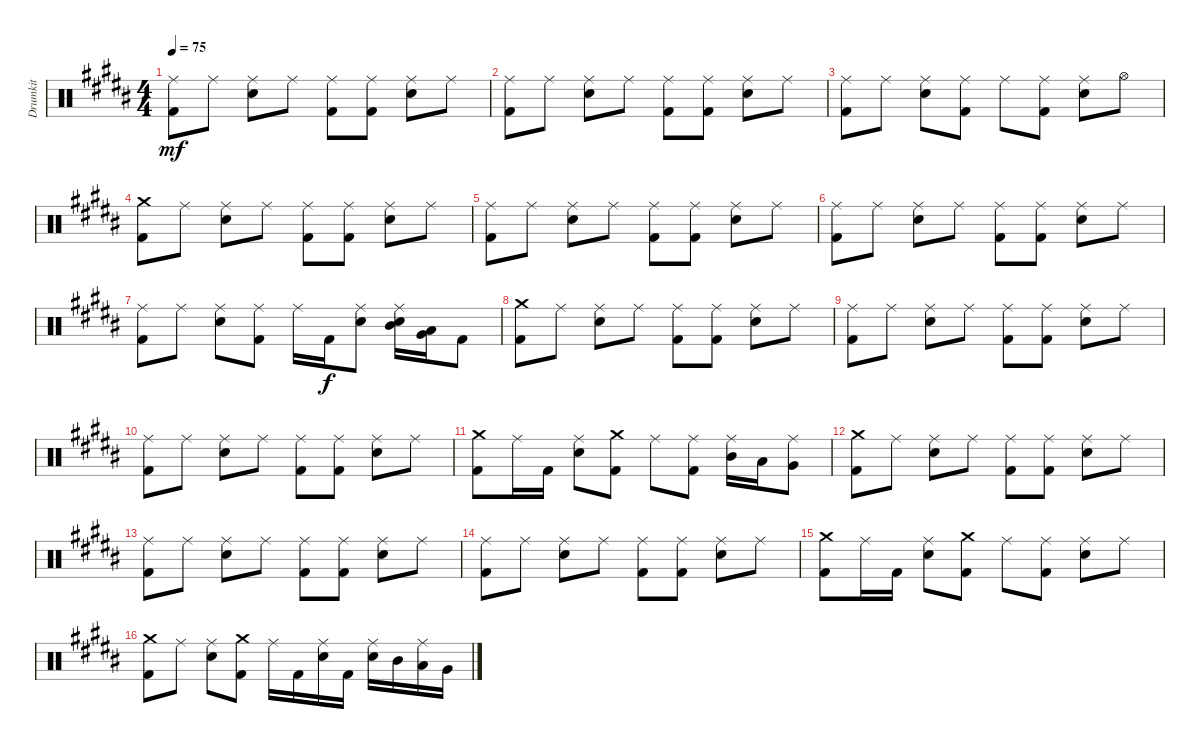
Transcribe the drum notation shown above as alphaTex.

\track ("Drumkit" "Drumkit") {instrument percussion}
\staff {score}
\articulation defaults
\ts (4 4)
\tempo 75
\clef neutral
\ks b
("Kick (hit) 2" "Ride (middle)").8{dy mf} "Ride (middle)".8 ("Ride (middle)" "Snare (hit) 2").8 "Ride (middle)".8 ("Ride (middle)" "Kick (hit) 2").8 ("Ride (middle)" "Kick (hit) 2").8 ("Ride (middle)" "Snare (hit) 2").8 "Ride (middle)".8 |
("Kick (hit) 2" "Ride (middle)").8 "Ride (middle)".8 ("Ride (middle)" "Snare (hit) 2").8 "Ride (middle)".8 ("Ride (middle)" "Kick (hit) 2").8 ("Ride (middle)" "Kick (hit) 2").8 ("Ride (middle)" "Snare (hit) 2").8 "Ride (middle)".8 |
("Kick (hit) 2" "Ride (middle)").8 "Ride (middle)".8 ("Ride (middle)" "Snare (hit) 2").8 ("Ride (middle)" "Kick (hit) 2").8 "Ride (middle)".8 ("Ride (middle)" "Kick (hit) 2").8 ("Ride (middle)" "Snare (hit) 2").8 "Hi-Hat (open)".8 |
("Kick (hit) 2" "Crash medium (hit)").8 "Ride (middle)".8 ("Ride (middle)" "Snare (hit) 2").8 "Ride (middle)".8 ("Ride (middle)" "Kick (hit) 2").8 ("Ride (middle)" "Kick (hit) 2").8 ("Ride (middle)" "Snare (hit) 2").8 "Ride (middle)".8 |
("Kick (hit) 2" "Ride (middle)").8 "Ride (middle)".8 ("Ride (middle)" "Snare (hit) 2").8 "Ride (middle)".8 ("Ride (middle)" "Kick (hit) 2").8 ("Ride (middle)" "Kick (hit) 2").8 ("Ride (middle)" "Snare (hit) 2").8 "Ride (middle)".8 |
("Kick (hit) 2" "Ride (middle)").8 "Ride (middle)".8 ("Ride (middle)" "Snare (hit) 2").8 "Ride (middle)".8 ("Ride (middle)" "Kick (hit) 2").8 ("Ride (middle)" "Kick (hit) 2").8 ("Ride (middle)" "Snare (hit) 2").8 "Ride (middle)".8 |
("Kick (hit) 2" "Ride (middle)").8 "Ride (middle)".8 ("Ride (middle)" "Snare (hit) 2").8 ("Ride (middle)" "Kick (hit) 2").8 "Ride (middle)".16 "Kick (hit) 2".16{dy f} ("Ride (middle)" "Snare (hit) 2").8 ("Ride (middle)" "Snare (hit) 2" "Mid Tom (hit)").16 ("Low Tom (hit)" "Very Low Tom (hit)").16 "Kick (hit) 2".8 |
("Kick (hit) 2" "Crash medium (hit)").8 "Ride (middle)".8 ("Ride (middle)" "Snare (hit) 2").8 "Ride (middle)".8 ("Ride (middle)" "Kick (hit) 2").8 ("Ride (middle)" "Kick (hit) 2").8 ("Ride (middle)" "Snare (hit) 2").8 "Ride (middle)".8 |
("Kick (hit) 2" "Ride (middle)").8 "Ride (middle)".8 ("Ride (middle)" "Snare (hit) 2").8 "Ride (middle)".8 ("Ride (middle)" "Kick (hit) 2").8 ("Ride (middle)" "Kick (hit) 2").8 ("Ride (middle)" "Snare (hit) 2").8 "Ride (middle)".8 |
("Kick (hit) 2" "Ride (middle)").8 "Ride (middle)".8 ("Ride (middle)" "Snare (hit) 2").8 "Ride (middle)".8 ("Ride (middle)" "Kick (hit) 2").8 ("Ride (middle)" "Kick (hit) 2").8 ("Ride (middle)" "Snare (hit) 2").8 "Ride (middle)".8 |
("Kick (hit) 2" "Crash medium (hit)").8 "Ride (middle)".16 "Kick (hit) 2".16 ("Ride (middle)" "Snare (hit) 2").8 ("Kick (hit) 2" "Crash medium (hit)").8 "Ride (middle)".8 ("Ride (middle)" "Kick (hit) 2").8 ("Mid Tom (hit)" "Ride (middle)").16 "Low Tom (hit)".16 ("Very Low Tom (hit)" "Ride (middle)").8 |
("Kick (hit) 2" "Crash medium (hit)").8 "Ride (middle)".8 ("Ride (middle)" "Snare (hit) 2").8 "Ride (middle)".8 ("Ride (middle)" "Kick (hit) 2").8 ("Ride (middle)" "Kick (hit) 2").8 ("Ride (middle)" "Snare (hit) 2").8 "Ride (middle)".8 |
("Kick (hit) 2" "Ride (middle)").8 "Ride (middle)".8 ("Ride (middle)" "Snare (hit) 2").8 "Ride (middle)".8 ("Ride (middle)" "Kick (hit) 2").8 ("Ride (middle)" "Kick (hit) 2").8 ("Ride (middle)" "Snare (hit) 2").8 "Ride (middle)".8 |
("Kick (hit) 2" "Ride (middle)").8 "Ride (middle)".8 ("Ride (middle)" "Snare (hit) 2").8 "Ride (middle)".8 ("Ride (middle)" "Kick (hit) 2").8 ("Ride (middle)" "Kick (hit) 2").8 ("Ride (middle)" "Snare (hit) 2").8 "Ride (middle)".8 |
("Kick (hit) 2" "Crash medium (hit)").8 "Ride (middle)".16 "Kick (hit) 2".16 ("Ride (middle)" "Snare (hit) 2").8 ("Kick (hit) 2" "Crash medium (hit)").8 "Ride (middle)".8 ("Ride (middle)" "Kick (hit) 2").8 ("Ride (middle)" "Snare (hit) 2").8 "Ride (middle)".8 |
("Kick (hit) 2" "Crash medium (hit)").8 "Ride (middle)".8 ("Ride (middle)" "Snare (hit) 2").8 ("Kick (hit) 2" "Crash medium (hit)").8 "Ride (middle)".16 "Kick (hit) 2".16 ("Ride (middle)" "Snare (hit) 2").16 "Kick (hit) 2".16 ("Ride (middle)" "Snare (hit) 2").16 "Mid Tom (hit)".16 ("Low Tom (hit)" "Ride (middle)").16 "Very Low Tom (hit)".16
